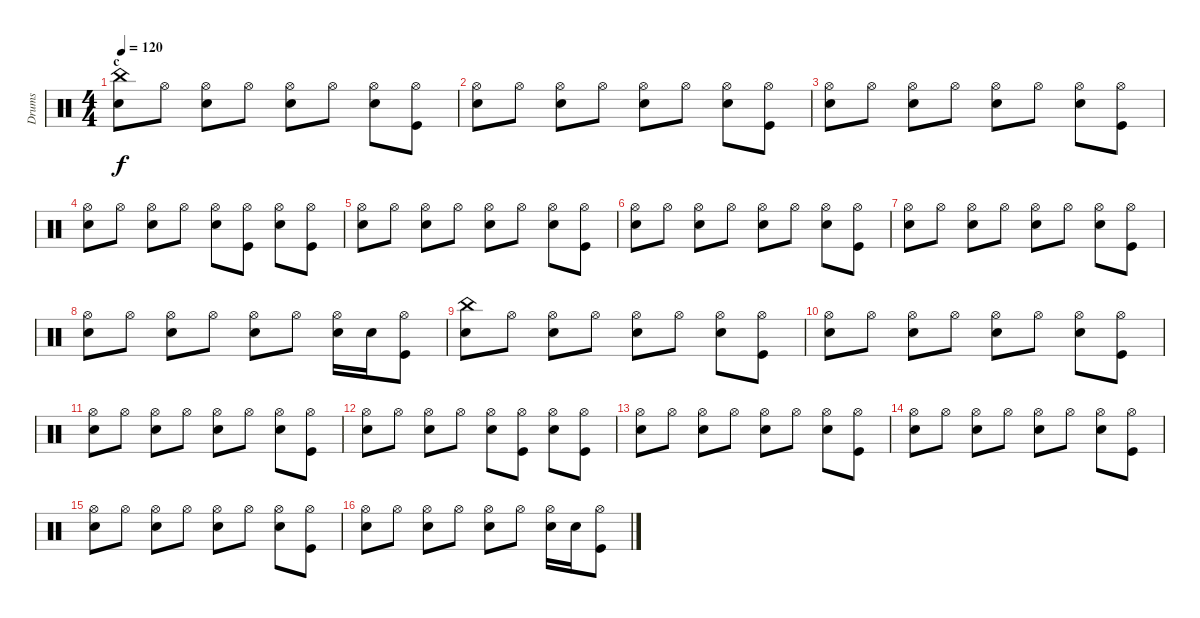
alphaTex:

\track ("Drums" "Drums") {instrument percussion}
\staff {score}
\articulation defaults
\ts (4 4)
\section ("" "c")
\tempo 120
\clef neutral
\ks c
("Snare (hit) 2" "China (hit)").8{dy f volume 13} "Hi-Hat (open)".8 ("Snare (hit) 2" "Hi-Hat (open)").8 "Hi-Hat (open)".8 ("Snare (hit) 2" "Hi-Hat (open)").8 "Hi-Hat (open)".8 ("Snare (hit) 2" "Hi-Hat (open)").8 ("Kick (hit)" "Hi-Hat (open)").8 |
("Snare (hit) 2" "Hi-Hat (open)").8 "Hi-Hat (open)".8 ("Snare (hit) 2" "Hi-Hat (open)").8 "Hi-Hat (open)".8 ("Snare (hit) 2" "Hi-Hat (open)").8 "Hi-Hat (open)".8 ("Snare (hit) 2" "Hi-Hat (open)").8 ("Kick (hit)" "Hi-Hat (open)").8 |
("Snare (hit) 2" "Hi-Hat (open)").8 "Hi-Hat (open)".8 ("Snare (hit) 2" "Hi-Hat (open)").8 "Hi-Hat (open)".8 ("Snare (hit) 2" "Hi-Hat (open)").8 "Hi-Hat (open)".8 ("Snare (hit) 2" "Hi-Hat (open)").8 ("Kick (hit)" "Hi-Hat (open)").8 |
("Snare (hit) 2" "Hi-Hat (open)").8 "Hi-Hat (open)".8 ("Snare (hit) 2" "Hi-Hat (open)").8 "Hi-Hat (open)".8 ("Snare (hit) 2" "Hi-Hat (open)").8 ("Kick (hit)" "Hi-Hat (open)").8 ("Snare (hit) 2" "Hi-Hat (open)").8 ("Kick (hit)" "Hi-Hat (open)").8 |
("Snare (hit) 2" "Hi-Hat (open)").8 "Hi-Hat (open)".8 ("Snare (hit) 2" "Hi-Hat (open)").8 "Hi-Hat (open)".8 ("Snare (hit) 2" "Hi-Hat (open)").8 "Hi-Hat (open)".8 ("Snare (hit) 2" "Hi-Hat (open)").8 ("Kick (hit)" "Hi-Hat (open)").8 |
("Snare (hit) 2" "Hi-Hat (open)").8 "Hi-Hat (open)".8 ("Snare (hit) 2" "Hi-Hat (open)").8 "Hi-Hat (open)".8 ("Snare (hit) 2" "Hi-Hat (open)").8 "Hi-Hat (open)".8 ("Snare (hit) 2" "Hi-Hat (open)").8 ("Kick (hit)" "Hi-Hat (open)").8 |
("Snare (hit) 2" "Hi-Hat (open)").8 "Hi-Hat (open)".8 ("Snare (hit) 2" "Hi-Hat (open)").8 "Hi-Hat (open)".8 ("Snare (hit) 2" "Hi-Hat (open)").8 "Hi-Hat (open)".8 ("Snare (hit) 2" "Hi-Hat (open)").8 ("Kick (hit)" "Hi-Hat (open)").8 |
("Snare (hit) 2" "Hi-Hat (open)").8 "Hi-Hat (open)".8 ("Snare (hit) 2" "Hi-Hat (open)").8 "Hi-Hat (open)".8 ("Snare (hit) 2" "Hi-Hat (open)").8 "Hi-Hat (open)".8 ("Snare (hit) 2" "Hi-Hat (open)").16 "Snare (hit) 2".16 ("Kick (hit)" "Hi-Hat (open)").8 |
("Snare (hit) 2" "China (hit)").8 "Hi-Hat (open)".8 ("Snare (hit) 2" "Hi-Hat (open)").8 "Hi-Hat (open)".8 ("Snare (hit) 2" "Hi-Hat (open)").8 "Hi-Hat (open)".8 ("Snare (hit) 2" "Hi-Hat (open)").8 ("Kick (hit)" "Hi-Hat (open)").8 |
("Snare (hit) 2" "Hi-Hat (open)").8 "Hi-Hat (open)".8 ("Snare (hit) 2" "Hi-Hat (open)").8 "Hi-Hat (open)".8 ("Snare (hit) 2" "Hi-Hat (open)").8 "Hi-Hat (open)".8 ("Snare (hit) 2" "Hi-Hat (open)").8 ("Kick (hit)" "Hi-Hat (open)").8 |
("Snare (hit) 2" "Hi-Hat (open)").8 "Hi-Hat (open)".8 ("Snare (hit) 2" "Hi-Hat (open)").8 "Hi-Hat (open)".8 ("Snare (hit) 2" "Hi-Hat (open)").8 "Hi-Hat (open)".8 ("Snare (hit) 2" "Hi-Hat (open)").8 ("Kick (hit)" "Hi-Hat (open)").8 |
("Snare (hit) 2" "Hi-Hat (open)").8 "Hi-Hat (open)".8 ("Snare (hit) 2" "Hi-Hat (open)").8 "Hi-Hat (open)".8 ("Snare (hit) 2" "Hi-Hat (open)").8 ("Kick (hit)" "Hi-Hat (open)").8 ("Snare (hit) 2" "Hi-Hat (open)").8 ("Kick (hit)" "Hi-Hat (open)").8 |
("Snare (hit) 2" "Hi-Hat (open)").8 "Hi-Hat (open)".8 ("Snare (hit) 2" "Hi-Hat (open)").8 "Hi-Hat (open)".8 ("Snare (hit) 2" "Hi-Hat (open)").8 "Hi-Hat (open)".8 ("Snare (hit) 2" "Hi-Hat (open)").8 ("Kick (hit)" "Hi-Hat (open)").8 |
("Snare (hit) 2" "Hi-Hat (open)").8 "Hi-Hat (open)".8 ("Snare (hit) 2" "Hi-Hat (open)").8 "Hi-Hat (open)".8 ("Snare (hit) 2" "Hi-Hat (open)").8 "Hi-Hat (open)".8 ("Snare (hit) 2" "Hi-Hat (open)").8 ("Kick (hit)" "Hi-Hat (open)").8 |
("Snare (hit) 2" "Hi-Hat (open)").8 "Hi-Hat (open)".8 ("Snare (hit) 2" "Hi-Hat (open)").8 "Hi-Hat (open)".8 ("Snare (hit) 2" "Hi-Hat (open)").8 "Hi-Hat (open)".8 ("Snare (hit) 2" "Hi-Hat (open)").8 ("Kick (hit)" "Hi-Hat (open)").8 |
("Snare (hit) 2" "Hi-Hat (open)").8 "Hi-Hat (open)".8 ("Snare (hit) 2" "Hi-Hat (open)").8 "Hi-Hat (open)".8 ("Snare (hit) 2" "Hi-Hat (open)").8 "Hi-Hat (open)".8 ("Snare (hit) 2" "Hi-Hat (open)").16 "Snare (hit) 2".16 ("Kick (hit)" "Hi-Hat (open)").8
